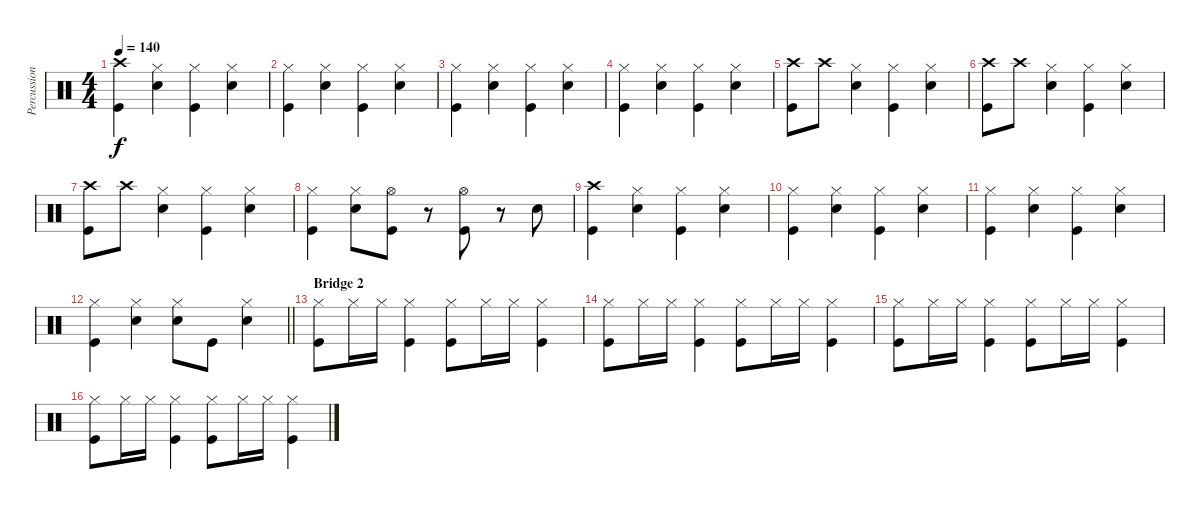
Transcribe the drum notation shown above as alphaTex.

\track ("Percussion" "Percussion") {instrument percussion}
\staff {score}
\articulation defaults
\ts (4 4)
\tempo 140
\clef neutral
\ks c
("Crash high (hit)" "Kick (hit)").4{dy f} ("Snare (hit) 2" "Hi-Hat (closed)").4 ("Kick (hit)" "Hi-Hat (closed)").4 ("Hi-Hat (closed)" "Snare (hit) 2").4 |
("Hi-Hat (closed)" "Kick (hit)").4 ("Snare (hit) 2" "Hi-Hat (closed)").4 ("Kick (hit)" "Hi-Hat (closed)").4 ("Hi-Hat (closed)" "Snare (hit) 2").4 |
("Hi-Hat (closed)" "Kick (hit)").4 ("Snare (hit) 2" "Hi-Hat (closed)").4 ("Kick (hit)" "Hi-Hat (closed)").4 ("Hi-Hat (closed)" "Snare (hit) 2").4 |
("Hi-Hat (closed)" "Kick (hit)").4 ("Snare (hit) 2" "Hi-Hat (closed)").4 ("Kick (hit)" "Hi-Hat (closed)").4 ("Hi-Hat (closed)" "Snare (hit) 2").4 |
("Crash high (hit)" "Kick (hit)").8 "Crash high (hit)".8 ("Snare (hit) 2" "Hi-Hat (closed)").4 ("Kick (hit)" "Hi-Hat (closed)").4 ("Hi-Hat (closed)" "Snare (hit) 2").4 |
("Crash high (hit)" "Kick (hit)").8 "Crash high (hit)".8 ("Snare (hit) 2" "Hi-Hat (closed)").4 ("Kick (hit)" "Hi-Hat (closed)").4 ("Hi-Hat (closed)" "Snare (hit) 2").4 |
("Crash high (hit)" "Kick (hit)").8 "Crash high (hit)".8 ("Snare (hit) 2" "Hi-Hat (closed)").4 ("Kick (hit)" "Hi-Hat (closed)").4 ("Hi-Hat (closed)" "Snare (hit) 2").4 |
("Hi-Hat (closed)" "Kick (hit)").4 ("Snare (hit) 2" "Hi-Hat (closed)").8 ("Hi-Hat (open)" "Kick (hit)").8 r.8 ("Hi-Hat (open)" "Kick (hit)").8 r.8 "Snare (hit) 2".8 |
("Crash high (hit)" "Kick (hit)").4 ("Snare (hit) 2" "Hi-Hat (closed)").4 ("Kick (hit)" "Hi-Hat (closed)").4 ("Hi-Hat (closed)" "Snare (hit) 2").4 |
("Hi-Hat (closed)" "Kick (hit)").4 ("Snare (hit) 2" "Hi-Hat (closed)").4 ("Kick (hit)" "Hi-Hat (closed)").4 ("Hi-Hat (closed)" "Snare (hit) 2").4 |
("Hi-Hat (closed)" "Kick (hit)").4 ("Snare (hit) 2" "Hi-Hat (closed)").4 ("Kick (hit)" "Hi-Hat (closed)").4 ("Hi-Hat (closed)" "Snare (hit) 2").4 |
\barLineRight lightlight
("Hi-Hat (closed)" "Kick (hit)").4 ("Snare (hit) 2" "Hi-Hat (closed)").4 ("Snare (hit) 2" "Hi-Hat (closed)").8 "Kick (hit)".8 ("Hi-Hat (closed)" "Snare (hit) 2").4 |
\section ("" "Bridge 2")
("Kick (hit)" "Hi-Hat (closed)").8 "Hi-Hat (closed)".16 "Hi-Hat (closed)".16 ("Hi-Hat (closed)" "Kick (hit)").4 ("Kick (hit)" "Hi-Hat (closed)").8 "Hi-Hat (closed)".16 "Hi-Hat (closed)".16 ("Hi-Hat (closed)" "Kick (hit)").4 |
("Kick (hit)" "Hi-Hat (closed)").8 "Hi-Hat (closed)".16 "Hi-Hat (closed)".16 ("Hi-Hat (closed)" "Kick (hit)").4 ("Kick (hit)" "Hi-Hat (closed)").8 "Hi-Hat (closed)".16 "Hi-Hat (closed)".16 ("Hi-Hat (closed)" "Kick (hit)").4 |
("Kick (hit)" "Hi-Hat (closed)").8 "Hi-Hat (closed)".16 "Hi-Hat (closed)".16 ("Hi-Hat (closed)" "Kick (hit)").4 ("Kick (hit)" "Hi-Hat (closed)").8 "Hi-Hat (closed)".16 "Hi-Hat (closed)".16 ("Hi-Hat (closed)" "Kick (hit)").4 |
("Kick (hit)" "Hi-Hat (closed)").8 "Hi-Hat (closed)".16 "Hi-Hat (closed)".16 ("Hi-Hat (closed)" "Kick (hit)").4 ("Kick (hit)" "Hi-Hat (closed)").8 "Hi-Hat (closed)".16 "Hi-Hat (closed)".16 ("Hi-Hat (closed)" "Kick (hit)").4
